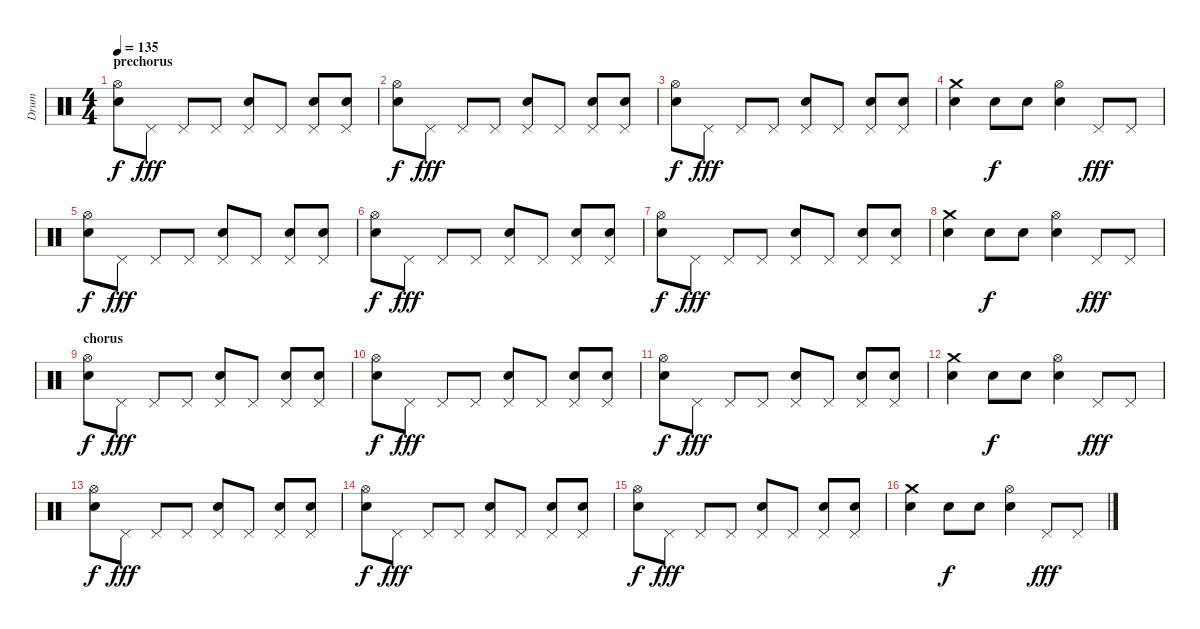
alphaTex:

\track ("Drum" "Drum") {instrument percussion}
\staff {score}
\articulation defaults
\ts (4 4)
\section ("" "prechorus")
\tempo 135
\clef neutral
\ks c
("Hi-Hat (open)" "Electric Snare (hit)").8{dy f} "Pedal Hi-Hat (hit)".8{dy fff} "Pedal Hi-Hat (hit)".8 "Pedal Hi-Hat (hit)".8 ("Pedal Hi-Hat (hit)" "Electric Snare (hit)").8 "Pedal Hi-Hat (hit)".8 ("Pedal Hi-Hat (hit)" "Electric Snare (hit)").8 ("Pedal Hi-Hat (hit)" "Electric Snare (hit)").8 |
("Hi-Hat (open)" "Electric Snare (hit)").8{dy f} "Pedal Hi-Hat (hit)".8{dy fff} "Pedal Hi-Hat (hit)".8 "Pedal Hi-Hat (hit)".8 ("Pedal Hi-Hat (hit)" "Electric Snare (hit)").8 "Pedal Hi-Hat (hit)".8 ("Pedal Hi-Hat (hit)" "Electric Snare (hit)").8 ("Pedal Hi-Hat (hit)" "Electric Snare (hit)").8 |
("Hi-Hat (open)" "Electric Snare (hit)").8{dy f} "Pedal Hi-Hat (hit)".8{dy fff} "Pedal Hi-Hat (hit)".8 "Pedal Hi-Hat (hit)".8 ("Pedal Hi-Hat (hit)" "Electric Snare (hit)").8 "Pedal Hi-Hat (hit)".8 ("Pedal Hi-Hat (hit)" "Electric Snare (hit)").8 ("Pedal Hi-Hat (hit)" "Electric Snare (hit)").8 |
("Crash medium (hit)" "Electric Snare (hit)").4 "Electric Snare (hit)".8{dy f} "Electric Snare (hit)".8 ("Hi-Hat (open)" "Electric Snare (hit)").4 "Pedal Hi-Hat (hit)".8{dy fff} "Pedal Hi-Hat (hit)".8 |
("Hi-Hat (open)" "Electric Snare (hit)").8{dy f} "Pedal Hi-Hat (hit)".8{dy fff} "Pedal Hi-Hat (hit)".8 "Pedal Hi-Hat (hit)".8 ("Pedal Hi-Hat (hit)" "Electric Snare (hit)").8 "Pedal Hi-Hat (hit)".8 ("Pedal Hi-Hat (hit)" "Electric Snare (hit)").8 ("Pedal Hi-Hat (hit)" "Electric Snare (hit)").8 |
("Hi-Hat (open)" "Electric Snare (hit)").8{dy f} "Pedal Hi-Hat (hit)".8{dy fff} "Pedal Hi-Hat (hit)".8 "Pedal Hi-Hat (hit)".8 ("Pedal Hi-Hat (hit)" "Electric Snare (hit)").8 "Pedal Hi-Hat (hit)".8 ("Pedal Hi-Hat (hit)" "Electric Snare (hit)").8 ("Pedal Hi-Hat (hit)" "Electric Snare (hit)").8 |
("Hi-Hat (open)" "Electric Snare (hit)").8{dy f} "Pedal Hi-Hat (hit)".8{dy fff} "Pedal Hi-Hat (hit)".8 "Pedal Hi-Hat (hit)".8 ("Pedal Hi-Hat (hit)" "Electric Snare (hit)").8 "Pedal Hi-Hat (hit)".8 ("Pedal Hi-Hat (hit)" "Electric Snare (hit)").8 ("Pedal Hi-Hat (hit)" "Electric Snare (hit)").8 |
("Crash medium (hit)" "Electric Snare (hit)").4 "Electric Snare (hit)".8{dy f} "Electric Snare (hit)".8 ("Hi-Hat (open)" "Electric Snare (hit)").4 "Pedal Hi-Hat (hit)".8{dy fff} "Pedal Hi-Hat (hit)".8 |
\section ("" "chorus")
("Hi-Hat (open)" "Electric Snare (hit)").8{dy f} "Pedal Hi-Hat (hit)".8{dy fff} "Pedal Hi-Hat (hit)".8 "Pedal Hi-Hat (hit)".8 ("Pedal Hi-Hat (hit)" "Electric Snare (hit)").8 "Pedal Hi-Hat (hit)".8 ("Pedal Hi-Hat (hit)" "Electric Snare (hit)").8 ("Pedal Hi-Hat (hit)" "Electric Snare (hit)").8 |
("Hi-Hat (open)" "Electric Snare (hit)").8{dy f} "Pedal Hi-Hat (hit)".8{dy fff} "Pedal Hi-Hat (hit)".8 "Pedal Hi-Hat (hit)".8 ("Pedal Hi-Hat (hit)" "Electric Snare (hit)").8 "Pedal Hi-Hat (hit)".8 ("Pedal Hi-Hat (hit)" "Electric Snare (hit)").8 ("Pedal Hi-Hat (hit)" "Electric Snare (hit)").8 |
("Hi-Hat (open)" "Electric Snare (hit)").8{dy f} "Pedal Hi-Hat (hit)".8{dy fff} "Pedal Hi-Hat (hit)".8 "Pedal Hi-Hat (hit)".8 ("Pedal Hi-Hat (hit)" "Electric Snare (hit)").8 "Pedal Hi-Hat (hit)".8 ("Pedal Hi-Hat (hit)" "Electric Snare (hit)").8 ("Pedal Hi-Hat (hit)" "Electric Snare (hit)").8 |
("Crash medium (hit)" "Electric Snare (hit)").4 "Electric Snare (hit)".8{dy f} "Electric Snare (hit)".8 ("Hi-Hat (open)" "Electric Snare (hit)").4 "Pedal Hi-Hat (hit)".8{dy fff} "Pedal Hi-Hat (hit)".8 |
("Hi-Hat (open)" "Electric Snare (hit)").8{dy f} "Pedal Hi-Hat (hit)".8{dy fff} "Pedal Hi-Hat (hit)".8 "Pedal Hi-Hat (hit)".8 ("Pedal Hi-Hat (hit)" "Electric Snare (hit)").8 "Pedal Hi-Hat (hit)".8 ("Pedal Hi-Hat (hit)" "Electric Snare (hit)").8 ("Pedal Hi-Hat (hit)" "Electric Snare (hit)").8 |
("Hi-Hat (open)" "Electric Snare (hit)").8{dy f} "Pedal Hi-Hat (hit)".8{dy fff} "Pedal Hi-Hat (hit)".8 "Pedal Hi-Hat (hit)".8 ("Pedal Hi-Hat (hit)" "Electric Snare (hit)").8 "Pedal Hi-Hat (hit)".8 ("Pedal Hi-Hat (hit)" "Electric Snare (hit)").8 ("Pedal Hi-Hat (hit)" "Electric Snare (hit)").8 |
("Hi-Hat (open)" "Electric Snare (hit)").8{dy f} "Pedal Hi-Hat (hit)".8{dy fff} "Pedal Hi-Hat (hit)".8 "Pedal Hi-Hat (hit)".8 ("Pedal Hi-Hat (hit)" "Electric Snare (hit)").8 "Pedal Hi-Hat (hit)".8 ("Pedal Hi-Hat (hit)" "Electric Snare (hit)").8 ("Pedal Hi-Hat (hit)" "Electric Snare (hit)").8 |
("Crash medium (hit)" "Electric Snare (hit)").4 "Electric Snare (hit)".8{dy f} "Electric Snare (hit)".8 ("Hi-Hat (open)" "Electric Snare (hit)").4 "Pedal Hi-Hat (hit)".8{dy fff} "Pedal Hi-Hat (hit)".8
